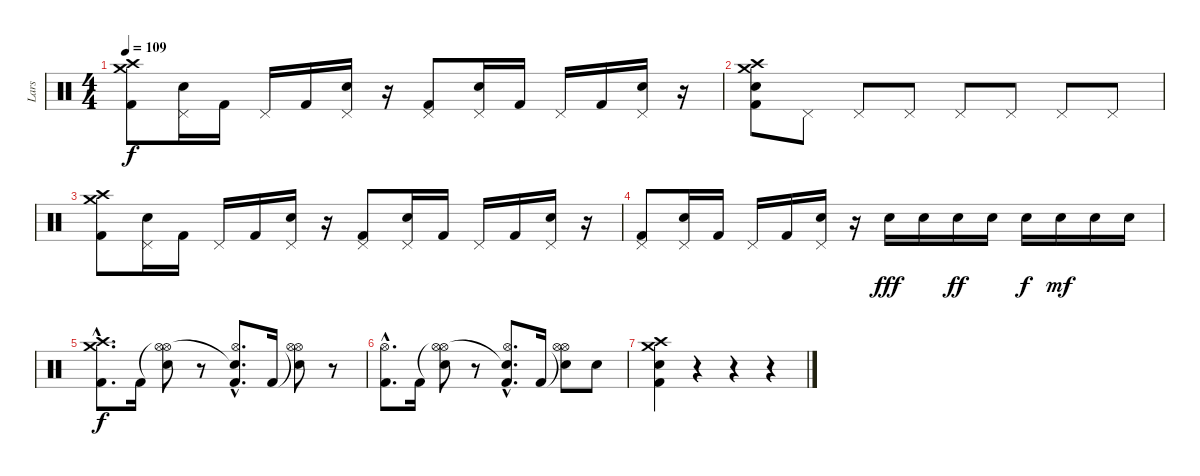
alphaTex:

\track ("Lars" "Lars") {instrument percussion}
\staff {score}
\articulation defaults
\ts (4 4)
\tempo 109
\clef neutral
\ks c
("Crash high (hit)" "Crash medium (hit)" "Kick (hit) 2").8{dy f} ("Pedal Hi-Hat (hit)" "Electric Snare (hit)").16 "Kick (hit) 2".16 "Pedal Hi-Hat (hit)".16 "Kick (hit) 2".16 ("Pedal Hi-Hat (hit)" "Electric Snare (hit)").16 r.16 ("Pedal Hi-Hat (hit)" "Kick (hit) 2").8 ("Pedal Hi-Hat (hit)" "Electric Snare (hit)").16 "Kick (hit) 2".16 "Pedal Hi-Hat (hit)".16 "Kick (hit) 2".16 ("Pedal Hi-Hat (hit)" "Electric Snare (hit)").16 r.16 |
("Crash high (hit)" "Crash medium (hit)" "Electric Snare (hit)" "Kick (hit) 2").8 "Pedal Hi-Hat (hit)".8 "Pedal Hi-Hat (hit)".8 "Pedal Hi-Hat (hit)".8 "Pedal Hi-Hat (hit)".8 "Pedal Hi-Hat (hit)".8 "Pedal Hi-Hat (hit)".8 "Pedal Hi-Hat (hit)".8 |
("Crash high (hit)" "Crash medium (hit)" "Kick (hit) 2").8 ("Pedal Hi-Hat (hit)" "Electric Snare (hit)").16 "Kick (hit) 2".16 "Pedal Hi-Hat (hit)".16 "Kick (hit) 2".16 ("Pedal Hi-Hat (hit)" "Electric Snare (hit)").16 r.16 ("Pedal Hi-Hat (hit)" "Kick (hit) 2").8 ("Pedal Hi-Hat (hit)" "Electric Snare (hit)").16 "Kick (hit) 2".16 "Pedal Hi-Hat (hit)".16 "Kick (hit) 2".16 ("Pedal Hi-Hat (hit)" "Electric Snare (hit)").16 r.16 |
("Pedal Hi-Hat (hit)" "Kick (hit) 2").8 ("Pedal Hi-Hat (hit)" "Electric Snare (hit)").16 "Kick (hit) 2".16 "Pedal Hi-Hat (hit)".16 "Kick (hit) 2".16 ("Pedal Hi-Hat (hit)" "Electric Snare (hit)").16 r.16 "Electric Snare (hit)".16{dy fff} "Electric Snare (hit)".16 "Electric Snare (hit)".16{dy ff} "Electric Snare (hit)".16 "Electric Snare (hit)".16{dy f} "Electric Snare (hit)".16{dy mf} "Electric Snare (hit)".16 "Electric Snare (hit)".16 |
("Crash high (hit)"{hac} "Crash medium (hit)"{hac} "Kick (hit) 2"{hac}).8{d dy f} "Kick (hit) 2".16 ("Hi-Hat (open)"{t} "Hi-Hat (open)" "Electric Snare (hit)").8 r.8 ("Hi-Hat (open)"{hac} "Snare (hit)"{hac t} "Kick (hit) 2"{hac}).8{d} "Kick (hit) 2".16 ("Hi-Hat (open)"{t} "Hi-Hat (open)" "Electric Snare (hit)").8 r.8 |
("Hi-Hat (open)"{hac} "Kick (hit) 2"{hac}).8{d} "Kick (hit) 2".16 ("Hi-Hat (open)"{t} "Hi-Hat (open)" "Electric Snare (hit)").8 r.8 ("Hi-Hat (open)"{hac} "Snare (hit)"{hac t} "Kick (hit) 2"{hac}).8{d} "Kick (hit) 2".16 ("Hi-Hat (open)"{t} "Hi-Hat (open)" "Electric Snare (hit)").8 "Electric Snare (hit)".8 |
("Crash high (hit)" "Crash medium (hit)" "Electric Snare (hit)" "Kick (hit) 2").4 r.4 r.4 r.4
